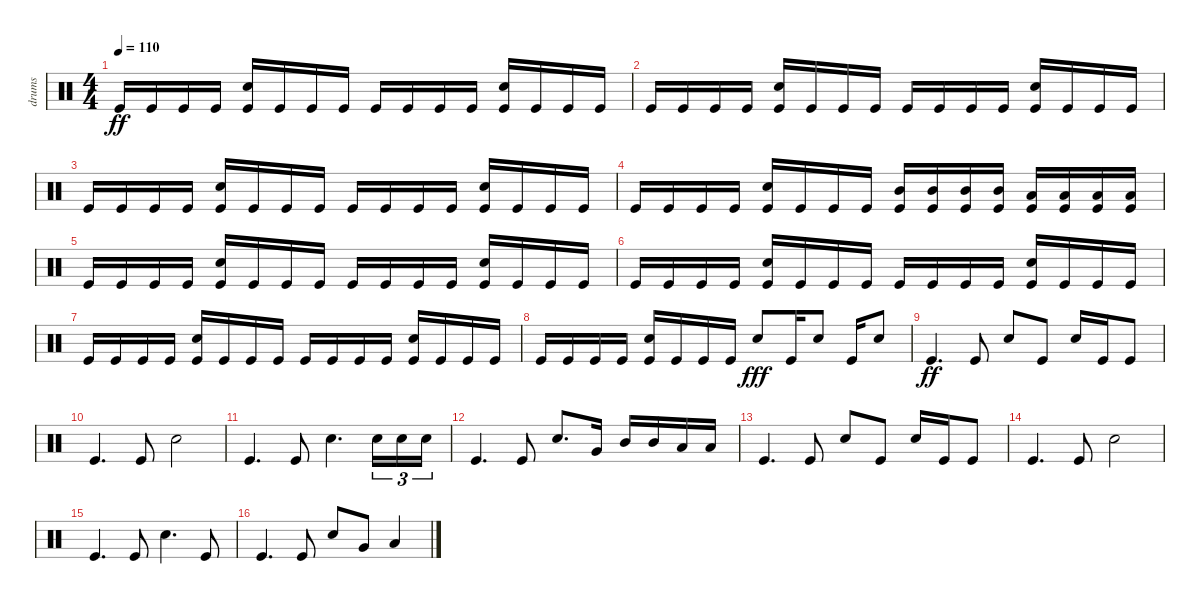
\track ("drums" "drums") {instrument percussion}
\staff {score}
\articulation defaults
\ts (4 4)
\tempo 110
\clef neutral
\ks c "Kick (hit)".16{dy ff} "Kick (hit)".16 "Kick (hit)".16 "Kick (hit)".16
("Electric Snare (hit)" "Kick (hit)").16 "Kick (hit)".16 "Kick (hit)".16 "Kick (hit)".16 "Kick (hit)".16 "Kick (hit)".16 "Kick (hit)".16 "Kick (hit)".16 ("Electric Snare (hit)" "Kick (hit)").16 "Kick (hit)".16 "Kick (hit)".16 "Kick (hit)".16 |
"Kick (hit)".16 "Kick (hit)".16 "Kick (hit)".16 "Kick (hit)".16 ("Electric Snare (hit)" "Kick (hit)").16 "Kick (hit)".16 "Kick (hit)".16 "Kick (hit)".16 "Kick (hit)".16 "Kick (hit)".16 "Kick (hit)".16 "Kick (hit)".16 ("Electric Snare (hit)" "Kick (hit)").16 "Kick (hit)".16 "Kick (hit)".16 "Kick (hit)".16 |
"Kick (hit)".16 "Kick (hit)".16 "Kick (hit)".16 "Kick (hit)".16 ("Electric Snare (hit)" "Kick (hit)").16 "Kick (hit)".16 "Kick (hit)".16 "Kick (hit)".16 "Kick (hit)".16 "Kick (hit)".16 "Kick (hit)".16 "Kick (hit)".16 ("Electric Snare (hit)" "Kick (hit)").16 "Kick (hit)".16 "Kick (hit)".16 "Kick (hit)".16 |
"Kick (hit)".16 "Kick (hit)".16 "Kick (hit)".16 "Kick (hit)".16 ("Electric Snare (hit)" "Kick (hit)").16 "Kick (hit)".16 "Kick (hit)".16 "Kick (hit)".16 ("Mid Tom (hit)" "Kick (hit)").16 ("Mid Tom (hit)" "Kick (hit)").16 ("Mid Tom (hit)" "Kick (hit)").16 ("Mid Tom (hit)" "Kick (hit)").16 ("Low Tom (hit)" "Kick (hit)").16 ("Low Tom (hit)" "Kick (hit)").16 ("Low Tom (hit)" "Kick (hit)").16 ("Low Tom (hit)" "Kick (hit)").16 |
"Kick (hit)".16 "Kick (hit)".16 "Kick (hit)".16 "Kick (hit)".16 ("Electric Snare (hit)" "Kick (hit)").16 "Kick (hit)".16 "Kick (hit)".16 "Kick (hit)".16 "Kick (hit)".16 "Kick (hit)".16 "Kick (hit)".16 "Kick (hit)".16 ("Electric Snare (hit)" "Kick (hit)").16 "Kick (hit)".16 "Kick (hit)".16 "Kick (hit)".16 |
"Kick (hit)".16 "Kick (hit)".16 "Kick (hit)".16 "Kick (hit)".16 ("Electric Snare (hit)" "Kick (hit)").16 "Kick (hit)".16 "Kick (hit)".16 "Kick (hit)".16 "Kick (hit)".16 "Kick (hit)".16 "Kick (hit)".16 "Kick (hit)".16 ("Electric Snare (hit)" "Kick (hit)").16 "Kick (hit)".16 "Kick (hit)".16 "Kick (hit)".16 |
"Kick (hit)".16 "Kick (hit)".16 "Kick (hit)".16 "Kick (hit)".16 ("Electric Snare (hit)" "Kick (hit)").16 "Kick (hit)".16 "Kick (hit)".16 "Kick (hit)".16 "Kick (hit)".16 "Kick (hit)".16 "Kick (hit)".16 "Kick (hit)".16 ("Electric Snare (hit)" "Kick (hit)").16 "Kick (hit)".16 "Kick (hit)".16 "Kick (hit)".16 |
"Kick (hit)".16 "Kick (hit)".16 "Kick (hit)".16 "Kick (hit)".16 ("Electric Snare (hit)" "Kick (hit)").16 "Kick (hit)".16 "Kick (hit)".16 "Kick (hit)".16 "Electric Snare (hit)".8{dy fff} "Kick (hit)".16 "Electric Snare (hit)".8 "Kick (hit)".16 "Electric Snare (hit)".8 |
"Kick (hit)".4{d dy ff} "Kick (hit)".8 "Electric Snare (hit)".8 "Kick (hit)".8 "Electric Snare (hit)".16 "Kick (hit)".16 "Kick (hit)".8 |
"Kick (hit)".4{d} "Kick (hit)".8 "Electric Snare (hit)".2 |
"Kick (hit)".4{d} "Kick (hit)".8 "Electric Snare (hit)".4{d} "Electric Snare (hit)".16{tu (3 2)} "Electric Snare (hit)".16{tu (3 2)} "Electric Snare (hit)".16{tu (3 2)} |
"Kick (hit)".4{d} "Kick (hit)".8 "Electric Snare (hit)".8{d} "Very Low Tom (hit)".16 "Mid Tom (hit)".16 "Mid Tom (hit)".16 "Low Tom (hit)".16 "Low Tom (hit)".16 |
"Kick (hit)".4{d} "Kick (hit)".8 "Electric Snare (hit)".8 "Kick (hit)".8 "Electric Snare (hit)".16 "Kick (hit)".16 "Kick (hit)".8 |
"Kick (hit)".4{d} "Kick (hit)".8 "Electric Snare (hit)".2 |
"Kick (hit)".4{d} "Kick (hit)".8 "Electric Snare (hit)".4{d} "Kick (hit)".8 |
"Kick (hit)".4{d} "Kick (hit)".8 "Electric Snare (hit)".8 "Very Low Tom (hit)".8 "Low Floor Tom (hit)".4
